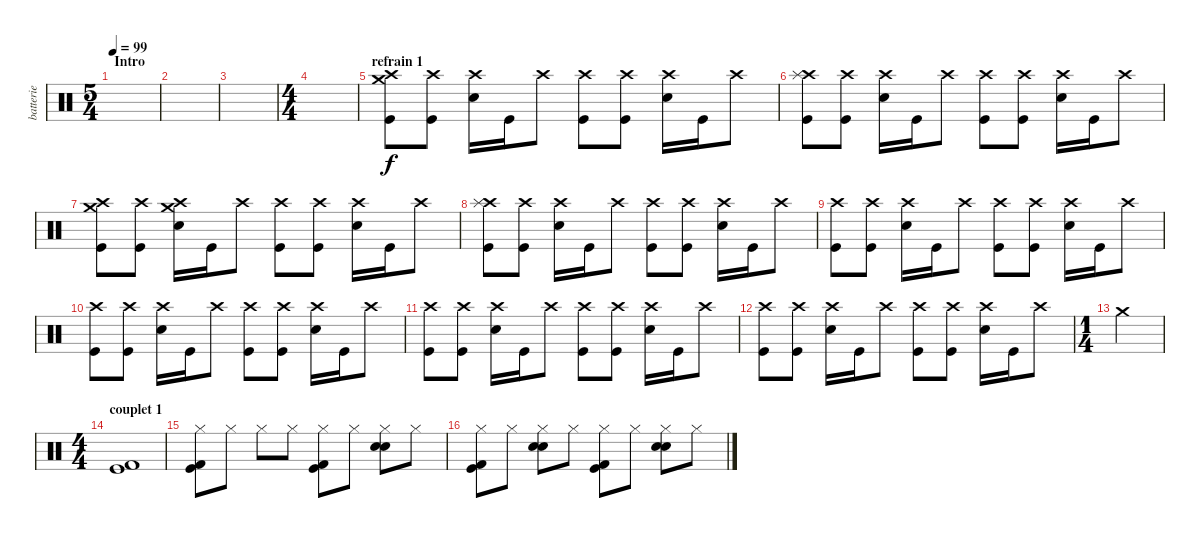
\track ("batterie" "batterie") {instrument percussion}
\staff {score}
\articulation defaults
\ts (5 4)
\section ("" "Intro")
\tempo 99
\clef neutral
\ks c
|
|
|
\ts (4 4)
|
\section ("" "refrain 1")
("Crash high (hit)" "Crash medium (hit)" "Kick (hit)").8 ("Crash high (hit)" "Kick (hit)").8 ("Crash high (hit)" "Electric Snare (hit)").16 "Kick (hit)".16 "Crash high (hit)".8 ("Crash high (hit)" "Kick (hit)").8 ("Crash high (hit)" "Kick (hit)").8 ("Crash high (hit)" "Electric Snare (hit)").16 "Kick (hit)".16 "Crash high (hit)".8 |
("Crash high (hit)" "Splash (hit)" "Kick (hit)").8 ("Crash high (hit)" "Kick (hit)").8 ("Crash high (hit)" "Electric Snare (hit)").16 "Kick (hit)".16 "Crash high (hit)".8 ("Crash high (hit)" "Kick (hit)").8 ("Crash high (hit)" "Kick (hit)").8 ("Crash high (hit)" "Electric Snare (hit)").16 "Kick (hit)".16 "Crash high (hit)".8 |
("Crash high (hit)" "Crash medium (hit)" "Kick (hit)").8 ("Crash high (hit)" "Kick (hit)").8 ("Crash high (hit)" "Crash medium (hit)" "Electric Snare (hit)").16 "Kick (hit)".16 "Crash high (hit)".8 ("Crash high (hit)" "Kick (hit)").8 ("Crash high (hit)" "Kick (hit)").8 ("Crash high (hit)" "Electric Snare (hit)").16 "Kick (hit)".16 "Crash high (hit)".8 |
("Crash high (hit)" "Splash (hit)" "Kick (hit)").8 ("Crash high (hit)" "Kick (hit)").8 ("Crash high (hit)" "Electric Snare (hit)").16 "Kick (hit)".16 "Crash high (hit)".8 ("Crash high (hit)" "Kick (hit)").8 ("Crash high (hit)" "Kick (hit)").8 ("Crash high (hit)" "Electric Snare (hit)").16 "Kick (hit)".16 "Crash high (hit)".8 |
("Crash high (hit)" "Kick (hit)").8 ("Crash high (hit)" "Kick (hit)").8 ("Crash high (hit)" "Electric Snare (hit)").16 "Kick (hit)".16 "Crash high (hit)".8 ("Crash high (hit)" "Kick (hit)").8 ("Crash high (hit)" "Kick (hit)").8 ("Crash high (hit)" "Electric Snare (hit)").16 "Kick (hit)".16 "Crash high (hit)".8 |
("Crash high (hit)" "Kick (hit)").8 ("Crash high (hit)" "Kick (hit)").8 ("Crash high (hit)" "Electric Snare (hit)").16 "Kick (hit)".16 "Crash high (hit)".8 ("Crash high (hit)" "Kick (hit)").8 ("Crash high (hit)" "Kick (hit)").8 ("Crash high (hit)" "Electric Snare (hit)").16 "Kick (hit)".16 "Crash high (hit)".8 |
("Crash high (hit)" "Kick (hit)").8 ("Crash high (hit)" "Kick (hit)").8 ("Crash high (hit)" "Electric Snare (hit)").16 "Kick (hit)".16 "Crash high (hit)".8 ("Crash high (hit)" "Kick (hit)").8 ("Crash high (hit)" "Kick (hit)").8 ("Crash high (hit)" "Electric Snare (hit)").16 "Kick (hit)".16 "Crash high (hit)".8 |
("Crash high (hit)" "Kick (hit)").8 ("Crash high (hit)" "Kick (hit)").8 ("Crash high (hit)" "Electric Snare (hit)").16 "Kick (hit)".16 "Crash high (hit)".8 ("Crash high (hit)" "Kick (hit)").8 ("Crash high (hit)" "Kick (hit)").8 ("Crash high (hit)" "Electric Snare (hit)").16 "Kick (hit)".16 "Crash high (hit)".8 |
\ts (1 4)
"Crash medium (hit)".4 |
\ts (4 4)
\section ("" "couplet 1")
("Kick (hit) 2" "Kick (hit)").1 |
("Hi-Hat (closed)" "Kick (hit) 2" "Kick (hit)").8 "Hi-Hat (closed)".8 "Hi-Hat (closed)".8 "Hi-Hat (closed)".8 ("Hi-Hat (closed)" "Kick (hit) 2" "Kick (hit)").8 "Hi-Hat (closed)".8 ("Hi-Hat (closed)" "Electric Snare (hit)" "Electric Snare (hit)").8 "Hi-Hat (closed)".8 |
("Hi-Hat (closed)" "Kick (hit) 2" "Kick (hit)").8 "Hi-Hat (closed)".8 ("Hi-Hat (closed)" "Electric Snare (hit)" "Electric Snare (hit)").8 "Hi-Hat (closed)".8 ("Hi-Hat (closed)" "Kick (hit) 2" "Kick (hit)").8 "Hi-Hat (closed)".8 ("Hi-Hat (closed)" "Electric Snare (hit)" "Electric Snare (hit)").8 "Hi-Hat (closed)".8
